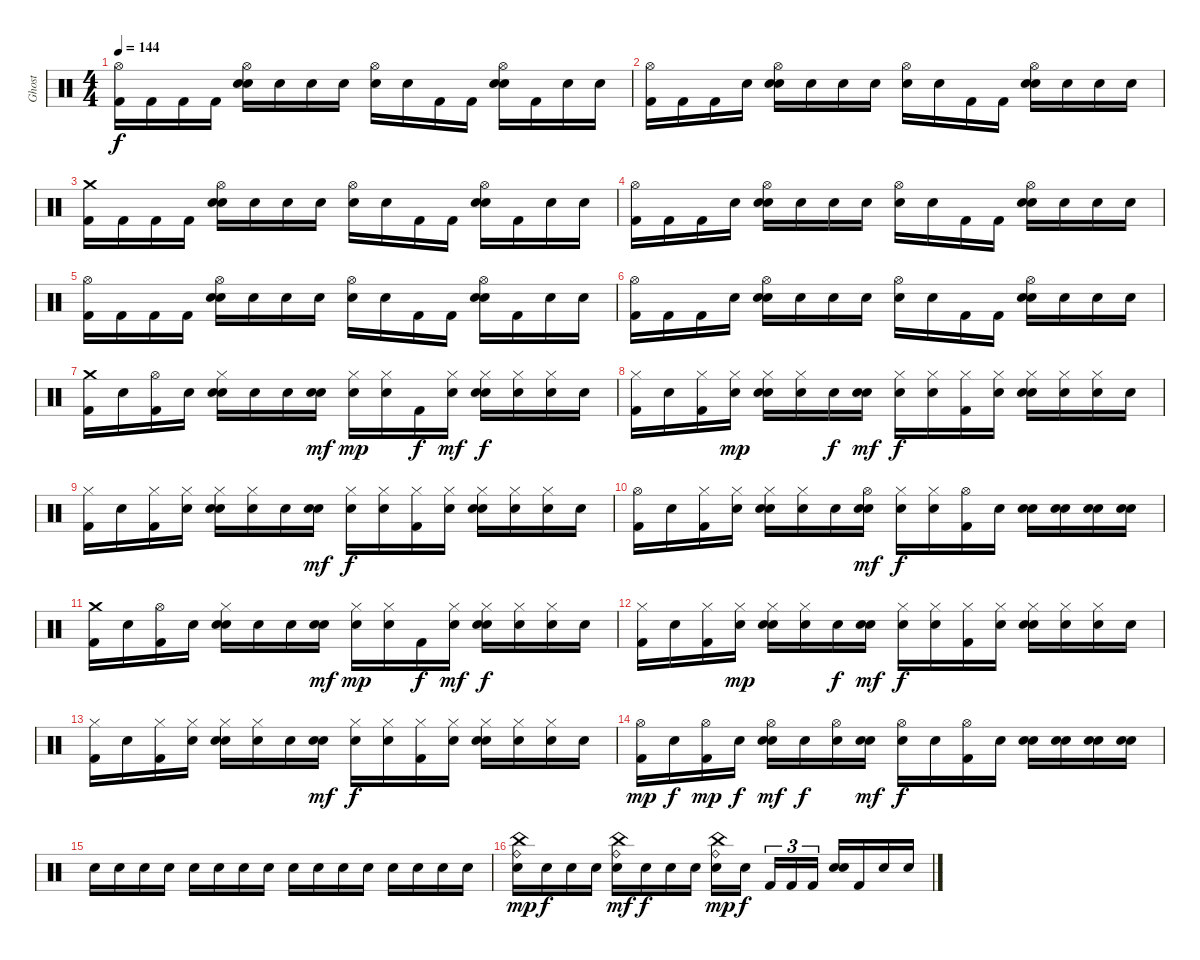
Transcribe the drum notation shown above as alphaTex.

\track ("Ghost" "Ghost") {instrument percussion}
\staff {score}
\articulation defaults
\ts (4 4)
\tempo 144
\clef neutral
\ks c
("Hi-Hat (open)" "Kick (hit) 2").16{dy f} "Kick (hit) 2".16 "Kick (hit) 2".16 "Kick (hit) 2".16 ("Hi-Hat (open)" "Electric Snare (hit)" "Snare (hit)").16 "Snare (hit)".16 "Snare (hit)".16 "Electric Snare (hit)".16 ("Hi-Hat (open)" "Snare (hit)").16 "Snare (hit)".16 "Kick (hit) 2".16 "Kick (hit) 2".16 ("Hi-Hat (open)" "Electric Snare (hit)" "Snare (hit)").16 "Kick (hit) 2".16 "Snare (hit)".16 "Snare (hit)".16 |
("Hi-Hat (open)" "Kick (hit) 2").16 "Kick (hit) 2".16 "Kick (hit) 2".16 "Snare (hit)".16 ("Hi-Hat (open)" "Electric Snare (hit)" "Snare (hit)").16 "Snare (hit)".16 "Snare (hit)".16 "Electric Snare (hit)".16 ("Hi-Hat (open)" "Snare (hit)").16 "Snare (hit)".16 "Kick (hit) 2".16 "Kick (hit) 2".16 ("Hi-Hat (open)" "Electric Snare (hit)" "Snare (hit)").16 "Snare (hit)".16 "Snare (hit)".16 "Snare (hit)".16 |
("Crash medium (hit)" "Kick (hit) 2").16 "Kick (hit) 2".16 "Kick (hit) 2".16 "Kick (hit) 2".16 ("Hi-Hat (open)" "Electric Snare (hit)" "Snare (hit)").16 "Snare (hit)".16 "Snare (hit)".16 "Electric Snare (hit)".16 ("Hi-Hat (open)" "Snare (hit)").16 "Snare (hit)".16 "Kick (hit) 2".16 "Kick (hit) 2".16 ("Hi-Hat (open)" "Electric Snare (hit)" "Snare (hit)").16 "Kick (hit) 2".16 "Snare (hit)".16 "Snare (hit)".16 |
("Hi-Hat (open)" "Kick (hit) 2").16 "Kick (hit) 2".16 "Kick (hit) 2".16 "Snare (hit)".16 ("Hi-Hat (open)" "Electric Snare (hit)" "Snare (hit)").16 "Snare (hit)".16 "Snare (hit)".16 "Electric Snare (hit)".16 ("Hi-Hat (open)" "Snare (hit)").16 "Snare (hit)".16 "Kick (hit) 2".16 "Kick (hit) 2".16 ("Hi-Hat (open)" "Electric Snare (hit)" "Snare (hit)").16 "Snare (hit)".16 "Snare (hit)".16 "Snare (hit)".16 |
("Hi-Hat (open)" "Kick (hit) 2").16 "Kick (hit) 2".16 "Kick (hit) 2".16 "Kick (hit) 2".16 ("Hi-Hat (open)" "Electric Snare (hit)" "Snare (hit)").16 "Snare (hit)".16 "Snare (hit)".16 "Electric Snare (hit)".16 ("Hi-Hat (open)" "Snare (hit)").16 "Snare (hit)".16 "Kick (hit) 2".16 "Kick (hit) 2".16 ("Hi-Hat (open)" "Electric Snare (hit)" "Snare (hit)").16 "Kick (hit) 2".16 "Snare (hit)".16 "Snare (hit)".16 |
("Hi-Hat (open)" "Kick (hit) 2").16 "Kick (hit) 2".16 "Kick (hit) 2".16 "Snare (hit)".16 ("Hi-Hat (open)" "Electric Snare (hit)" "Snare (hit)").16 "Snare (hit)".16 "Snare (hit)".16 "Electric Snare (hit)".16 ("Hi-Hat (open)" "Snare (hit)").16 "Snare (hit)".16 "Kick (hit) 2".16 "Kick (hit) 2".16 ("Hi-Hat (open)" "Electric Snare (hit)" "Snare (hit)").16 "Snare (hit)".16 "Snare (hit)".16 "Snare (hit)".16 |
("Crash medium (hit)" "Kick (hit) 2").16 "Snare (hit)".16 ("Hi-Hat (open)" "Kick (hit) 2").16 "Snare (hit)".16 ("Hi-Hat (closed)" "Electric Snare (hit)" "Snare (hit)").16 "Snare (hit)".16 "Snare (hit)".16 ("Electric Snare (hit)" "Snare (hit)").16{dy mf} ("Hi-Hat (closed)" "Snare (hit)").16{dy mp} ("Hi-Hat (closed)" "Snare (hit)").16 "Kick (hit) 2".16{dy f} ("Hi-Hat (closed)" "Snare (hit)").16{dy mf} ("Hi-Hat (closed)" "Electric Snare (hit)" "Snare (hit)").16{dy f} ("Hi-Hat (closed)" "Snare (hit)").16 ("Hi-Hat (closed)" "Snare (hit)").16 "Snare (hit)".16 |
("Hi-Hat (closed)" "Kick (hit) 2").16 "Snare (hit)".16 ("Hi-Hat (closed)" "Kick (hit) 2").16 ("Hi-Hat (closed)" "Snare (hit)").16{dy mp} ("Hi-Hat (closed)" "Electric Snare (hit)" "Snare (hit)").16 ("Hi-Hat (closed)" "Snare (hit)").16 "Snare (hit)".16{dy f} ("Electric Snare (hit)" "Snare (hit)").16{dy mf} ("Hi-Hat (closed)" "Snare (hit)").16{dy f} ("Hi-Hat (closed)" "Snare (hit)").16 ("Hi-Hat (closed)" "Kick (hit) 2").16 ("Hi-Hat (closed)" "Snare (hit)").16 ("Hi-Hat (closed)" "Electric Snare (hit)" "Snare (hit)").16 ("Hi-Hat (closed)" "Snare (hit)").16 ("Hi-Hat (closed)" "Snare (hit)").16 "Snare (hit)".16 |
("Hi-Hat (closed)" "Kick (hit) 2").16 "Snare (hit)".16 ("Hi-Hat (closed)" "Kick (hit) 2").16 ("Hi-Hat (closed)" "Snare (hit)").16 ("Hi-Hat (closed)" "Electric Snare (hit)" "Snare (hit)").16 ("Hi-Hat (closed)" "Snare (hit)").16 "Snare (hit)".16 ("Electric Snare (hit)" "Snare (hit)").16{dy mf} ("Hi-Hat (closed)" "Snare (hit)").16{dy f} ("Hi-Hat (closed)" "Snare (hit)").16 ("Hi-Hat (closed)" "Kick (hit) 2").16 ("Hi-Hat (closed)" "Snare (hit)").16 ("Hi-Hat (closed)" "Electric Snare (hit)" "Snare (hit)").16 ("Hi-Hat (closed)" "Snare (hit)").16 ("Hi-Hat (closed)" "Snare (hit)").16 "Snare (hit)".16 |
("Hi-Hat (open)" "Kick (hit) 2").16 "Snare (hit)".16 ("Hi-Hat (closed)" "Kick (hit) 2").16 ("Hi-Hat (closed)" "Snare (hit)").16 ("Hi-Hat (closed)" "Electric Snare (hit)" "Snare (hit)").16 ("Hi-Hat (closed)" "Snare (hit)").16 "Snare (hit)".16 ("Hi-Hat (open)" "Electric Snare (hit)" "Snare (hit)").16{dy mf} ("Hi-Hat (closed)" "Snare (hit)").16{dy f} ("Hi-Hat (closed)" "Snare (hit)").16 ("Hi-Hat (open)" "Kick (hit) 2").16 "Snare (hit)".16 ("Electric Snare (hit)" "Snare (hit)").16 ("Electric Snare (hit)" "Snare (hit)").16 ("Electric Snare (hit)" "Snare (hit)").16 ("Electric Snare (hit)" "Snare (hit)").16 |
("Crash medium (hit)" "Kick (hit) 2").16 "Snare (hit)".16 ("Hi-Hat (open)" "Kick (hit) 2").16 "Snare (hit)".16 ("Hi-Hat (closed)" "Electric Snare (hit)" "Snare (hit)").16 "Snare (hit)".16 "Snare (hit)".16 ("Electric Snare (hit)" "Snare (hit)").16{dy mf} ("Hi-Hat (closed)" "Snare (hit)").16{dy mp} ("Hi-Hat (closed)" "Snare (hit)").16 "Kick (hit) 2".16{dy f} ("Hi-Hat (closed)" "Snare (hit)").16{dy mf} ("Hi-Hat (closed)" "Electric Snare (hit)" "Snare (hit)").16{dy f} ("Hi-Hat (closed)" "Snare (hit)").16 ("Hi-Hat (closed)" "Snare (hit)").16 "Snare (hit)".16 |
("Hi-Hat (closed)" "Kick (hit) 2").16 "Snare (hit)".16 ("Hi-Hat (closed)" "Kick (hit) 2").16 ("Hi-Hat (closed)" "Snare (hit)").16{dy mp} ("Hi-Hat (closed)" "Electric Snare (hit)" "Snare (hit)").16 ("Hi-Hat (closed)" "Snare (hit)").16 "Snare (hit)".16{dy f} ("Electric Snare (hit)" "Snare (hit)").16{dy mf} ("Hi-Hat (closed)" "Snare (hit)").16{dy f} ("Hi-Hat (closed)" "Snare (hit)").16 ("Hi-Hat (closed)" "Kick (hit) 2").16 ("Hi-Hat (closed)" "Snare (hit)").16 ("Hi-Hat (closed)" "Electric Snare (hit)" "Snare (hit)").16 ("Hi-Hat (closed)" "Snare (hit)").16 ("Hi-Hat (closed)" "Snare (hit)").16 "Snare (hit)".16 |
("Hi-Hat (closed)" "Kick (hit) 2").16 "Snare (hit)".16 ("Hi-Hat (closed)" "Kick (hit) 2").16 ("Hi-Hat (closed)" "Snare (hit)").16 ("Hi-Hat (closed)" "Electric Snare (hit)" "Snare (hit)").16 ("Hi-Hat (closed)" "Snare (hit)").16 "Snare (hit)".16 ("Electric Snare (hit)" "Snare (hit)").16{dy mf} ("Hi-Hat (closed)" "Snare (hit)").16{dy f} ("Hi-Hat (closed)" "Snare (hit)").16 ("Hi-Hat (closed)" "Kick (hit) 2").16 ("Hi-Hat (closed)" "Snare (hit)").16 ("Hi-Hat (closed)" "Electric Snare (hit)" "Snare (hit)").16 ("Hi-Hat (closed)" "Snare (hit)").16 ("Hi-Hat (closed)" "Snare (hit)").16 "Snare (hit)".16 |
("Hi-Hat (open)" "Kick (hit) 2").16{dy mp} "Snare (hit)".16{dy f} ("Hi-Hat (open)" "Kick (hit) 2").16{dy mp} "Snare (hit)".16{dy f} ("Hi-Hat (open)" "Electric Snare (hit)" "Snare (hit)").16{dy mf} "Snare (hit)".16{dy f} ("Hi-Hat (open)" "Snare (hit)").16 ("Electric Snare (hit)" "Snare (hit)").16{dy mf} ("Hi-Hat (open)" "Snare (hit)").16{dy f} "Snare (hit)".16 ("Hi-Hat (open)" "Kick (hit) 2").16 "Snare (hit)".16 ("Electric Snare (hit)" "Snare (hit)").16 ("Electric Snare (hit)" "Snare (hit)").16 ("Electric Snare (hit)" "Snare (hit)").16 ("Electric Snare (hit)" "Snare (hit)").16 |
"Snare (hit)".16 "Snare (hit)".16 "Snare (hit)".16 "Snare (hit)".16 "Snare (hit)".16 "Snare (hit)".16 "Snare (hit)".16 "Snare (hit)".16 "Snare (hit)".16 "Snare (hit)".16 "Snare (hit)".16 "Snare (hit)".16 "Snare (hit)".16 "Snare (hit)".16 "Snare (hit)".16 "Snare (hit)".16 |
("China (hit)" "Ride (bell)" "Snare (hit)").16{dy mp} "Snare (hit)".16{dy f} "Snare (hit)".16 "Snare (hit)".16 ("China (hit)" "Ride (bell)" "Snare (hit)").16{dy mf} "Snare (hit)".16{dy f} "Snare (hit)".16 "Snare (hit)".16 ("China (hit)" "Ride (bell)" "Snare (hit)").16{dy mp} "Snare (hit)".16{dy f beam splitsecondary} "Kick (hit) 2".16{tu (3 2)} "Kick (hit) 2".16{tu (3 2)} "Kick (hit) 2".16{tu (3 2)} ("Electric Snare (hit)" "Snare (hit)").16 "Kick (hit) 2".16 "Snare (hit)".16 "Snare (hit)".16
